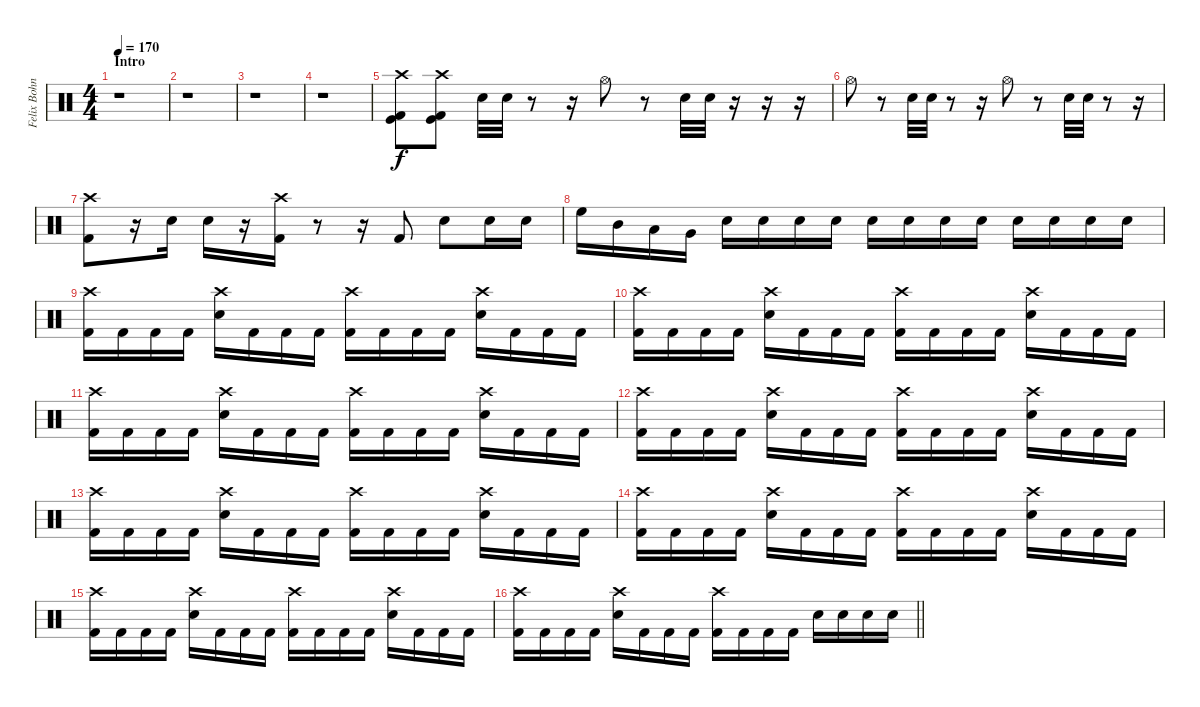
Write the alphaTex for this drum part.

\track ("Felix Bohnke - Drums" "Felix Bohn") {instrument percussion}
\staff {score}
\articulation defaults
\ts (4 4)
\section ("" "Intro")
\tempo 170
\clef neutral
\ks c
r.1{dy f} |
r.1 |
r.1 |
r.1 |
("Crash high (hit)" "Kick (hit)" "Kick (hit) 2").8 ("Crash high (hit)" "Kick (hit)" "Kick (hit) 2").8 "Electric Snare (hit)".32 "Electric Snare (hit)".32 r.8 r.16 "Hi-Hat (open)".8 r.8 "Electric Snare (hit)".32 "Electric Snare (hit)".32 r.16 r.16 r.16 |
"Hi-Hat (open)".8 r.8 "Electric Snare (hit)".32 "Electric Snare (hit)".32 r.8 r.16 "Hi-Hat (open)".8 r.8 "Electric Snare (hit)".32 "Electric Snare (hit)".32 r.8 r.16 |
("Crash high (hit)" "Kick (hit) 2").8 r.16 "Electric Snare (hit)".16 "Electric Snare (hit)".16 r.16 ("Crash high (hit)" "Kick (hit) 2").16 r.8 r.16 "Kick (hit) 2".8 "Electric Snare (hit)".8 "Electric Snare (hit)".16 "Electric Snare (hit)".16 |
"High Floor Tom (hit)".16 "Mid Tom (hit)".16 "Low Tom (hit)".16 "Very Low Tom (hit)".16 "Electric Snare (hit)".16 "Electric Snare (hit)".16 "Electric Snare (hit)".16 "Electric Snare (hit)".16 "Electric Snare (hit)".16{volume 5} "Electric Snare (hit)".16{volume 6} "Electric Snare (hit)".16{volume 7} "Electric Snare (hit)".16{volume 8} "Electric Snare (hit)".16{volume 9} "Electric Snare (hit)".16{volume 11} "Electric Snare (hit)".16{volume 13} "Electric Snare (hit)".16{volume 16} |
("Crash high (hit)" "Kick (hit) 2").16 "Kick (hit) 2".16 "Kick (hit) 2".16 "Kick (hit) 2".16 ("Crash high (hit)" "Electric Snare (hit)").16 "Kick (hit) 2".16 "Kick (hit) 2".16 "Kick (hit) 2".16 ("Crash high (hit)" "Kick (hit) 2").16 "Kick (hit) 2".16 "Kick (hit) 2".16 "Kick (hit) 2".16 ("Crash high (hit)" "Electric Snare (hit)").16 "Kick (hit) 2".16 "Kick (hit) 2".16 "Kick (hit) 2".16 |
("Crash high (hit)" "Kick (hit) 2").16 "Kick (hit) 2".16 "Kick (hit) 2".16 "Kick (hit) 2".16 ("Crash high (hit)" "Electric Snare (hit)").16 "Kick (hit) 2".16 "Kick (hit) 2".16 "Kick (hit) 2".16 ("Crash high (hit)" "Kick (hit) 2").16 "Kick (hit) 2".16 "Kick (hit) 2".16 "Kick (hit) 2".16 ("Crash high (hit)" "Electric Snare (hit)").16 "Kick (hit) 2".16 "Kick (hit) 2".16 "Kick (hit) 2".16 |
("Crash high (hit)" "Kick (hit) 2").16 "Kick (hit) 2".16 "Kick (hit) 2".16 "Kick (hit) 2".16 ("Crash high (hit)" "Electric Snare (hit)").16 "Kick (hit) 2".16 "Kick (hit) 2".16 "Kick (hit) 2".16 ("Crash high (hit)" "Kick (hit) 2").16 "Kick (hit) 2".16 "Kick (hit) 2".16 "Kick (hit) 2".16 ("Crash high (hit)" "Electric Snare (hit)").16 "Kick (hit) 2".16 "Kick (hit) 2".16 "Kick (hit) 2".16 |
("Crash high (hit)" "Kick (hit) 2").16 "Kick (hit) 2".16 "Kick (hit) 2".16 "Kick (hit) 2".16 ("Crash high (hit)" "Electric Snare (hit)").16 "Kick (hit) 2".16 "Kick (hit) 2".16 "Kick (hit) 2".16 ("Crash high (hit)" "Kick (hit) 2").16 "Kick (hit) 2".16 "Kick (hit) 2".16 "Kick (hit) 2".16 ("Crash high (hit)" "Electric Snare (hit)").16 "Kick (hit) 2".16 "Kick (hit) 2".16 "Kick (hit) 2".16 |
("Crash high (hit)" "Kick (hit) 2").16 "Kick (hit) 2".16 "Kick (hit) 2".16 "Kick (hit) 2".16 ("Crash high (hit)" "Electric Snare (hit)").16 "Kick (hit) 2".16 "Kick (hit) 2".16 "Kick (hit) 2".16 ("Crash high (hit)" "Kick (hit) 2").16 "Kick (hit) 2".16 "Kick (hit) 2".16 "Kick (hit) 2".16 ("Crash high (hit)" "Electric Snare (hit)").16 "Kick (hit) 2".16 "Kick (hit) 2".16 "Kick (hit) 2".16 |
("Crash high (hit)" "Kick (hit) 2").16 "Kick (hit) 2".16 "Kick (hit) 2".16 "Kick (hit) 2".16 ("Crash high (hit)" "Electric Snare (hit)").16 "Kick (hit) 2".16 "Kick (hit) 2".16 "Kick (hit) 2".16 ("Crash high (hit)" "Kick (hit) 2").16 "Kick (hit) 2".16 "Kick (hit) 2".16 "Kick (hit) 2".16 ("Crash high (hit)" "Electric Snare (hit)").16 "Kick (hit) 2".16 "Kick (hit) 2".16 "Kick (hit) 2".16 |
("Crash high (hit)" "Kick (hit) 2").16 "Kick (hit) 2".16 "Kick (hit) 2".16 "Kick (hit) 2".16 ("Crash high (hit)" "Electric Snare (hit)").16 "Kick (hit) 2".16 "Kick (hit) 2".16 "Kick (hit) 2".16 ("Crash high (hit)" "Kick (hit) 2").16 "Kick (hit) 2".16 "Kick (hit) 2".16 "Kick (hit) 2".16 ("Crash high (hit)" "Electric Snare (hit)").16 "Kick (hit) 2".16 "Kick (hit) 2".16 "Kick (hit) 2".16 |
\barLineRight lightlight
("Crash high (hit)" "Kick (hit) 2").16 "Kick (hit) 2".16 "Kick (hit) 2".16 "Kick (hit) 2".16 ("Crash high (hit)" "Electric Snare (hit)").16 "Kick (hit) 2".16 "Kick (hit) 2".16 "Kick (hit) 2".16 ("Crash high (hit)" "Kick (hit) 2").16 "Kick (hit) 2".16 "Kick (hit) 2".16 "Kick (hit) 2".16 "Electric Snare (hit)".16 "Electric Snare (hit)".16 "Electric Snare (hit)".16 "Electric Snare (hit)".16
